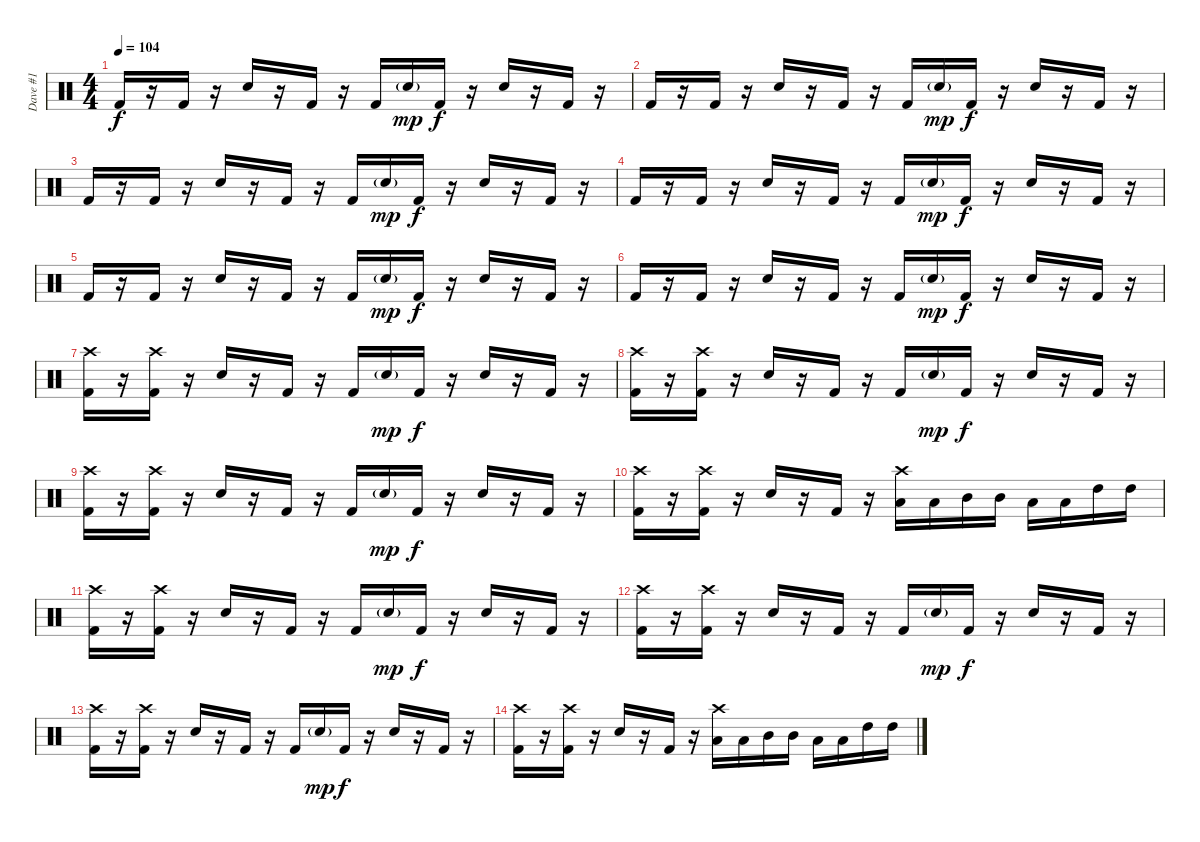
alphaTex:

\track ("Dave #1" "Dave #1") {instrument percussion}
\staff {score}
\articulation defaults
\ts (4 4)
\tempo 104
\clef neutral
\ks c "Kick (hit) 2".16{dy f}
r.16 "Kick (hit) 2".16 r.16 "Snare (hit) 2".16 r.16 "Kick (hit) 2".16 r.16 "Kick (hit) 2".16 "Snare (hit) 2"{g}.16{dy mp} "Kick (hit) 2".16{dy f} r.16 "Snare (hit) 2".16 r.16 "Kick (hit) 2".16 r.16 |
"Kick (hit) 2".16 r.16 "Kick (hit) 2".16 r.16 "Snare (hit) 2".16 r.16 "Kick (hit) 2".16 r.16 "Kick (hit) 2".16 "Snare (hit) 2"{g}.16{dy mp} "Kick (hit) 2".16{dy f} r.16 "Snare (hit) 2".16 r.16 "Kick (hit) 2".16 r.16 |
"Kick (hit) 2".16 r.16 "Kick (hit) 2".16 r.16 "Snare (hit) 2".16 r.16 "Kick (hit) 2".16 r.16 "Kick (hit) 2".16 "Snare (hit) 2"{g}.16{dy mp} "Kick (hit) 2".16{dy f} r.16 "Snare (hit) 2".16 r.16 "Kick (hit) 2".16 r.16 |
"Kick (hit) 2".16 r.16 "Kick (hit) 2".16 r.16 "Snare (hit) 2".16 r.16 "Kick (hit) 2".16 r.16 "Kick (hit) 2".16 "Snare (hit) 2"{g}.16{dy mp} "Kick (hit) 2".16{dy f} r.16 "Snare (hit) 2".16 r.16 "Kick (hit) 2".16 r.16 |
"Kick (hit) 2".16 r.16 "Kick (hit) 2".16 r.16 "Snare (hit) 2".16 r.16 "Kick (hit) 2".16 r.16 "Kick (hit) 2".16 "Snare (hit) 2"{g}.16{dy mp} "Kick (hit) 2".16{dy f} r.16 "Snare (hit) 2".16 r.16 "Kick (hit) 2".16 r.16 |
"Kick (hit) 2".16 r.16 "Kick (hit) 2".16 r.16 "Snare (hit) 2".16 r.16 "Kick (hit) 2".16 r.16 "Kick (hit) 2".16 "Snare (hit) 2"{g}.16{dy mp} "Kick (hit) 2".16{dy f} r.16 "Snare (hit) 2".16 r.16 "Kick (hit) 2".16 r.16 |
("Crash high (hit)" "Kick (hit) 2").16 r.16 ("Crash high (hit)" "Kick (hit) 2").16 r.16 "Snare (hit) 2".16 r.16 "Kick (hit) 2".16 r.16 "Kick (hit) 2".16 "Snare (hit) 2"{g}.16{dy mp} "Kick (hit) 2".16{dy f} r.16 "Snare (hit) 2".16 r.16 "Kick (hit) 2".16 r.16 |
("Crash high (hit)" "Kick (hit) 2").16 r.16 ("Crash high (hit)" "Kick (hit) 2").16 r.16 "Snare (hit) 2".16 r.16 "Kick (hit) 2".16 r.16 "Kick (hit) 2".16 "Snare (hit) 2"{g}.16{dy mp} "Kick (hit) 2".16{dy f} r.16 "Snare (hit) 2".16 r.16 "Kick (hit) 2".16 r.16 |
("Crash high (hit)" "Kick (hit) 2").16 r.16 ("Crash high (hit)" "Kick (hit) 2").16 r.16 "Snare (hit) 2".16 r.16 "Kick (hit) 2".16 r.16 "Kick (hit) 2".16 "Snare (hit) 2"{g}.16{dy mp} "Kick (hit) 2".16{dy f} r.16 "Snare (hit) 2".16 r.16 "Kick (hit) 2".16 r.16 |
("Crash high (hit)" "Kick (hit) 2").16 r.16 ("Crash high (hit)" "Kick (hit) 2").16 r.16 "Snare (hit) 2".16 r.16 "Kick (hit) 2".16 r.16 ("Crash high (hit)" "Low Tom (hit)").16 "Low Tom (hit)".16 "Mid Tom (hit)".16 "Mid Tom (hit)".16 "Low Tom (hit)".16 "Low Tom (hit)".16 "High Tom (hit)".16 "High Tom (hit)".16 |
("Crash high (hit)" "Kick (hit) 2").16 r.16 ("Crash high (hit)" "Kick (hit) 2").16 r.16 "Snare (hit) 2".16 r.16 "Kick (hit) 2".16 r.16 "Kick (hit) 2".16 "Snare (hit) 2"{g}.16{dy mp} "Kick (hit) 2".16{dy f} r.16 "Snare (hit) 2".16 r.16 "Kick (hit) 2".16 r.16 |
("Crash high (hit)" "Kick (hit) 2").16 r.16 ("Crash high (hit)" "Kick (hit) 2").16 r.16 "Snare (hit) 2".16 r.16 "Kick (hit) 2".16 r.16 "Kick (hit) 2".16 "Snare (hit) 2"{g}.16{dy mp} "Kick (hit) 2".16{dy f} r.16 "Snare (hit) 2".16 r.16 "Kick (hit) 2".16 r.16 |
("Crash high (hit)" "Kick (hit) 2").16 r.16 ("Crash high (hit)" "Kick (hit) 2").16 r.16 "Snare (hit) 2".16 r.16 "Kick (hit) 2".16 r.16 "Kick (hit) 2".16 "Snare (hit) 2"{g}.16{dy mp} "Kick (hit) 2".16{dy f} r.16 "Snare (hit) 2".16 r.16 "Kick (hit) 2".16 r.16 |
("Crash high (hit)" "Kick (hit) 2").16 r.16 ("Crash high (hit)" "Kick (hit) 2").16 r.16 "Snare (hit) 2".16 r.16 "Kick (hit) 2".16 r.16 ("Crash high (hit)" "Low Tom (hit)").16 "Low Tom (hit)".16 "Mid Tom (hit)".16 "Mid Tom (hit)".16 "Low Tom (hit)".16 "Low Tom (hit)".16 "High Tom (hit)".16 "High Tom (hit)".16
